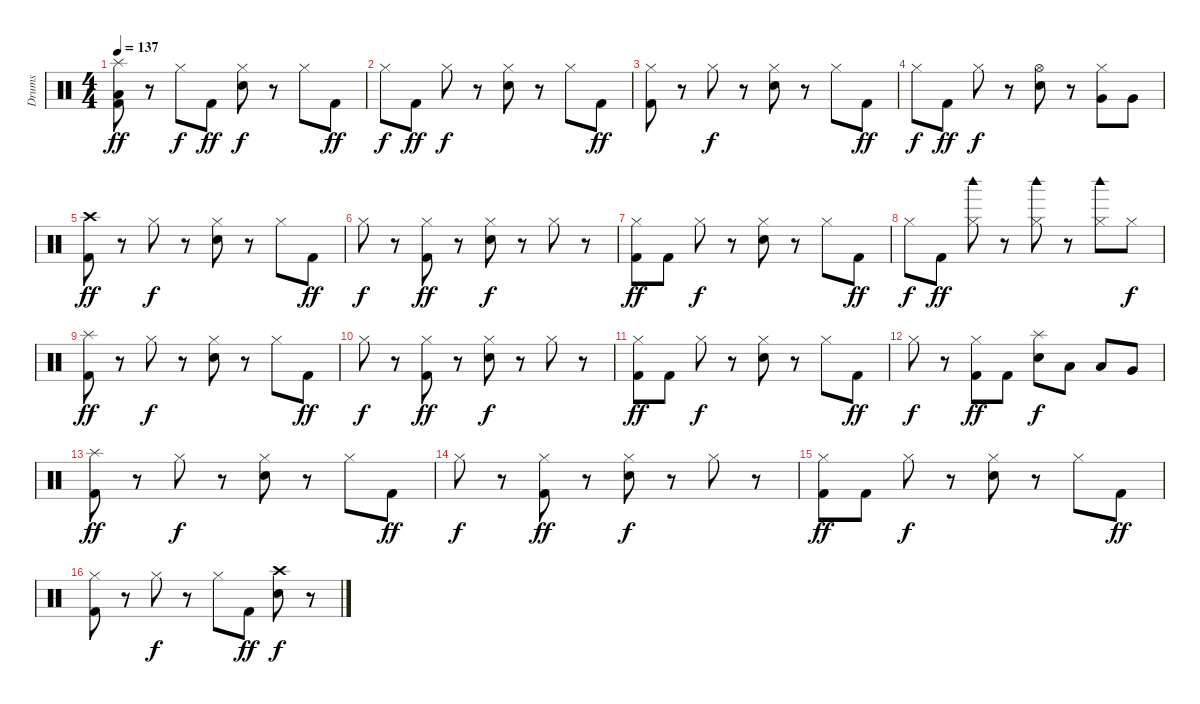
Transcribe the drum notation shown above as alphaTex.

\track ("Drums" "Drums") {instrument percussion}
\staff {score}
\articulation defaults
\ts (4 4)
\tempo 137
\clef neutral
\ks c
("Splash (hit)" "Low Floor Tom (hit)" "Kick (hit) 2").8{dy ff} r.8 "Hi-Hat (closed)".8{dy f} "Kick (hit) 2".8{dy ff} ("Hi-Hat (closed)" "Electric Snare (hit)").8{dy f} r.8 "Hi-Hat (closed)".8 "Kick (hit) 2".8{dy ff} |
"Hi-Hat (closed)".8{dy f} "Kick (hit) 2".8{dy ff} "Hi-Hat (closed)".8{dy f} r.8 ("Hi-Hat (closed)" "Electric Snare (hit)").8 r.8 "Hi-Hat (closed)".8 "Kick (hit) 2".8{dy ff} |
("Hi-Hat (closed)" "Kick (hit) 2").8 r.8 "Hi-Hat (closed)".8{dy f} r.8 ("Hi-Hat (closed)" "Electric Snare (hit)").8 r.8 "Hi-Hat (closed)".8 "Kick (hit) 2".8{dy ff} |
"Hi-Hat (closed)".8{dy f} "Kick (hit) 2".8{dy ff} "Hi-Hat (closed)".8{dy f} r.8 ("Hi-Hat (open)" "Electric Snare (hit)").8 r.8 ("Hi-Hat (closed)" "Very Low Tom (hit)").8 "Very Low Tom (hit)".8 |
("Crash high (hit)" "Kick (hit) 2").8{dy ff} r.8 "Hi-Hat (closed)".8{dy f} r.8 ("Hi-Hat (closed)" "Electric Snare (hit)").8 r.8 "Hi-Hat (closed)".8 "Kick (hit) 2".8{dy ff} |
"Hi-Hat (closed)".8{dy f} r.8 ("Hi-Hat (closed)" "Kick (hit) 2").8{dy ff} r.8 ("Hi-Hat (closed)" "Electric Snare (hit)").8{dy f} r.8 "Hi-Hat (closed)".8 r.8 |
("Hi-Hat (closed)" "Kick (hit) 2").8{dy ff} "Kick (hit) 2".8 "Hi-Hat (closed)".8{dy f} r.8 ("Hi-Hat (closed)" "Electric Snare (hit)").8 r.8 "Hi-Hat (closed)".8 "Kick (hit) 2".8{dy ff} |
"Hi-Hat (closed)".8{dy f} "Kick (hit) 2".8{dy ff} ("Hi-Hat (closed)" "Woodblock high (hit)").8 r.8 ("Hi-Hat (closed)" "Woodblock high (hit)").8 r.8 ("Hi-Hat (closed)" "Woodblock high (hit)").8 "Hi-Hat (closed)".8{dy f} |
("Splash (hit)" "Kick (hit) 2").8{dy ff} r.8 "Hi-Hat (closed)".8{dy f} r.8 ("Hi-Hat (closed)" "Electric Snare (hit)").8 r.8 "Hi-Hat (closed)".8 "Kick (hit) 2".8{dy ff} |
"Hi-Hat (closed)".8{dy f} r.8 ("Hi-Hat (closed)" "Kick (hit) 2").8{dy ff} r.8 ("Hi-Hat (closed)" "Electric Snare (hit)").8{dy f} r.8 "Hi-Hat (closed)".8 r.8 |
("Hi-Hat (closed)" "Kick (hit) 2").8{dy ff} "Kick (hit) 2".8 "Hi-Hat (closed)".8{dy f} r.8 ("Hi-Hat (closed)" "Electric Snare (hit)").8 r.8 "Hi-Hat (closed)".8 "Kick (hit) 2".8{dy ff} |
"Hi-Hat (closed)".8{dy f} r.8 ("Hi-Hat (closed)" "Kick (hit) 2").8{dy ff} "Kick (hit) 2".8 ("Splash (hit)" "Electric Snare (hit)").8{dy f} "Low Tom (hit)".8 "Low Tom (hit)".8 "Very Low Tom (hit)".8 |
("Splash (hit)" "Kick (hit) 2").8{dy ff} r.8 "Hi-Hat (closed)".8{dy f} r.8 ("Hi-Hat (closed)" "Electric Snare (hit)").8 r.8 "Hi-Hat (closed)".8 "Kick (hit) 2".8{dy ff} |
"Hi-Hat (closed)".8{dy f} r.8 ("Hi-Hat (closed)" "Kick (hit) 2").8{dy ff} r.8 ("Hi-Hat (closed)" "Electric Snare (hit)").8{dy f} r.8 "Hi-Hat (closed)".8 r.8 |
("Hi-Hat (closed)" "Kick (hit) 2").8{dy ff} "Kick (hit) 2".8 "Hi-Hat (closed)".8{dy f} r.8 ("Hi-Hat (closed)" "Electric Snare (hit)").8 r.8 "Hi-Hat (closed)".8 "Kick (hit) 2".8{dy ff} |
("Hi-Hat (closed)" "Kick (hit) 2").8 r.8 "Hi-Hat (closed)".8{dy f} r.8 "Hi-Hat (closed)".8 "Kick (hit) 2".8{dy ff} ("Crash high (hit)" "Electric Snare (hit)").8{dy f} r.8
